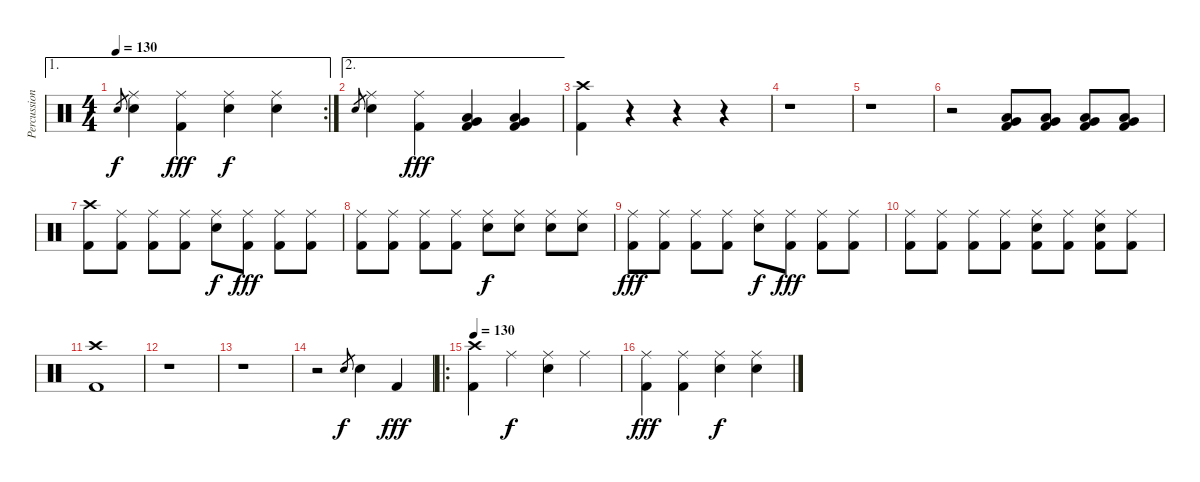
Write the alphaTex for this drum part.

\track ("Percussion" "Percussion") {instrument percussion}
\staff {score}
\articulation defaults
\ae 1
\rc 2
\ts (4 4)
\tempo 130
\clef neutral
\ks c "Snare (hit) 2".8{gr dy f}
("Ride (middle)" "Snare (hit) 2").4 ("Ride (middle)" "Kick (hit) 2").4{dy fff} ("Ride (middle)" "Snare (hit) 2").4{dy f} ("Ride (middle)" "Snare (hit) 2").4 |
\ae 2 "Snare (hit) 2".8{gr}
("Ride (middle)" "Snare (hit) 2").4 ("Ride (middle)" "Kick (hit) 2").4{dy fff} ("Low Tom (hit)" "Very Low Tom (hit)" "Kick (hit) 2").4 ("Low Tom (hit)" "Very Low Tom (hit)" "Kick (hit) 2").4 |
("Crash high (hit)" "Kick (hit) 2").4 r.4 r.4 r.4 |
r.1 |
r.1 |
r.2 ("Low Tom (hit)" "Very Low Tom (hit)" "Kick (hit) 2").8 ("Low Tom (hit)" "Very Low Tom (hit)" "Kick (hit) 2").8 ("Low Tom (hit)" "Very Low Tom (hit)" "Kick (hit) 2").8 ("Low Tom (hit)" "Very Low Tom (hit)" "Kick (hit) 2").8 |
("Crash high (hit)" "Kick (hit) 2").8 ("Ride (middle)" "Kick (hit) 2").8 ("Ride (middle)" "Kick (hit) 2").8 ("Ride (middle)" "Kick (hit) 2").8 ("Ride (middle)" "Snare (hit) 2").8{dy f} ("Ride (middle)" "Kick (hit) 2").8{dy fff} ("Ride (middle)" "Kick (hit) 2").8 ("Ride (middle)" "Kick (hit) 2").8 |
("Ride (middle)" "Kick (hit) 2").8 ("Ride (middle)" "Kick (hit) 2").8 ("Ride (middle)" "Kick (hit) 2").8 ("Ride (middle)" "Kick (hit) 2").8 ("Ride (middle)" "Snare (hit) 2").8{dy f} ("Ride (middle)" "Snare (hit) 2").8 ("Ride (middle)" "Snare (hit) 2").8 ("Ride (middle)" "Snare (hit) 2").8 |
("Ride (middle)" "Kick (hit) 2").8{dy fff} ("Ride (middle)" "Kick (hit) 2").8 ("Ride (middle)" "Kick (hit) 2").8 ("Ride (middle)" "Kick (hit) 2").8 ("Ride (middle)" "Snare (hit) 2").8{dy f} ("Ride (middle)" "Kick (hit) 2").8{dy fff} ("Ride (middle)" "Kick (hit) 2").8 ("Ride (middle)" "Kick (hit) 2").8 |
("Ride (middle)" "Kick (hit) 2").8 ("Ride (middle)" "Kick (hit) 2").8 ("Ride (middle)" "Kick (hit) 2").8 ("Ride (middle)" "Kick (hit) 2").8 ("Ride (middle)" "Snare (hit) 2" "Kick (hit) 2").8 ("Ride (middle)" "Kick (hit) 2").8 ("Ride (middle)" "Snare (hit) 2" "Kick (hit) 2").8 ("Ride (middle)" "Kick (hit) 2").8 |
("Crash high (hit)" "Kick (hit) 2").1 |
r.1 |
r.1 |
r.2 "Snare (hit) 2".8{gr dy f} "Snare (hit) 2".4 "Kick (hit) 2".4{dy fff} |
\ro
\tempo 130
("Crash high (hit)" "Kick (hit) 2").4 "Ride (middle)".4{dy f} ("Ride (middle)" "Snare (hit) 2").4 "Ride (middle)".4 |
("Ride (middle)" "Kick (hit) 2").4{dy fff} ("Ride (middle)" "Kick (hit) 2").4 ("Ride (middle)" "Snare (hit) 2").4{dy f} ("Ride (middle)" "Snare (hit) 2").4
